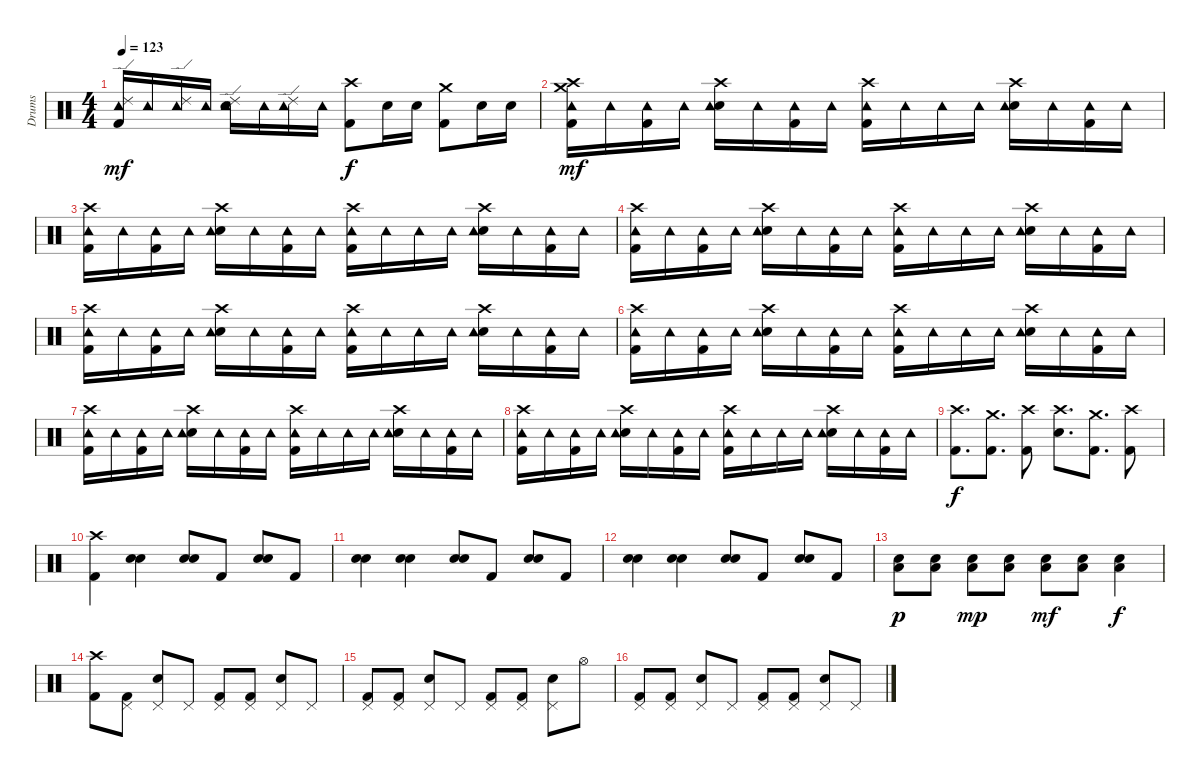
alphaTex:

\track ("Drums" "Drums") {instrument percussion}
\staff {score}
\articulation defaults
\ts (4 4)
\tempo 123
\clef neutral
\ks c
("Ride (edge) 2" "Tambourine (hit)" "Kick (hit) 2").16{dy mf} "Tambourine (hit)".16 ("Ride (edge) 2" "Tambourine (hit)").16 "Tambourine (hit)".16 ("Ride (edge) 2" "Electric Snare (hit)" "Tambourine (hit)").16 "Tambourine (hit)".16 ("Ride (edge) 2" "Tambourine (hit)").16 "Tambourine (hit)".16 ("Crash high (hit)" "Kick (hit) 2").8{dy f} "Electric Snare (hit)".16 "Electric Snare (hit)".16 ("Crash medium (hit)" "Kick (hit) 2").8 "Electric Snare (hit)".16 "Electric Snare (hit)".16 |
("Crash high (hit)" "Crash medium (hit)" "Tambourine (hit)" "Kick (hit) 2").16{dy mf} "Tambourine (hit)".16 ("Tambourine (hit)" "Kick (hit) 2").16 "Tambourine (hit)".16 ("Crash high (hit)" "Electric Snare (hit)" "Tambourine (hit)").16 "Tambourine (hit)".16 ("Tambourine (hit)" "Kick (hit) 2").16 "Tambourine (hit)".16 ("Crash high (hit)" "Tambourine (hit)" "Kick (hit) 2").16 "Tambourine (hit)".16 "Tambourine (hit)".16 "Tambourine (hit)".16 ("Crash high (hit)" "Electric Snare (hit)" "Tambourine (hit)").16 "Tambourine (hit)".16 ("Tambourine (hit)" "Kick (hit) 2").16 "Tambourine (hit)".16 |
("Crash high (hit)" "Tambourine (hit)" "Kick (hit) 2").16 "Tambourine (hit)".16 ("Tambourine (hit)" "Kick (hit) 2").16 "Tambourine (hit)".16 ("Crash high (hit)" "Electric Snare (hit)" "Tambourine (hit)").16 "Tambourine (hit)".16 ("Tambourine (hit)" "Kick (hit) 2").16 "Tambourine (hit)".16 ("Crash high (hit)" "Tambourine (hit)" "Kick (hit) 2").16 "Tambourine (hit)".16 "Tambourine (hit)".16 "Tambourine (hit)".16 ("Crash high (hit)" "Electric Snare (hit)" "Tambourine (hit)").16 "Tambourine (hit)".16 ("Tambourine (hit)" "Kick (hit) 2").16 "Tambourine (hit)".16 |
("Crash high (hit)" "Tambourine (hit)" "Kick (hit) 2").16 "Tambourine (hit)".16 ("Tambourine (hit)" "Kick (hit) 2").16 "Tambourine (hit)".16 ("Crash high (hit)" "Electric Snare (hit)" "Tambourine (hit)").16 "Tambourine (hit)".16 ("Tambourine (hit)" "Kick (hit) 2").16 "Tambourine (hit)".16 ("Crash high (hit)" "Tambourine (hit)" "Kick (hit) 2").16 "Tambourine (hit)".16 "Tambourine (hit)".16 "Tambourine (hit)".16 ("Crash high (hit)" "Electric Snare (hit)" "Tambourine (hit)").16 "Tambourine (hit)".16 ("Tambourine (hit)" "Kick (hit) 2").16 "Tambourine (hit)".16 |
("Crash high (hit)" "Tambourine (hit)" "Kick (hit) 2").16 "Tambourine (hit)".16 ("Tambourine (hit)" "Kick (hit) 2").16 "Tambourine (hit)".16 ("Crash high (hit)" "Electric Snare (hit)" "Tambourine (hit)").16 "Tambourine (hit)".16 ("Tambourine (hit)" "Kick (hit) 2").16 "Tambourine (hit)".16 ("Crash high (hit)" "Tambourine (hit)" "Kick (hit) 2").16 "Tambourine (hit)".16 "Tambourine (hit)".16 "Tambourine (hit)".16 ("Crash high (hit)" "Electric Snare (hit)" "Tambourine (hit)").16 "Tambourine (hit)".16 ("Tambourine (hit)" "Kick (hit) 2").16 "Tambourine (hit)".16 |
("Crash high (hit)" "Tambourine (hit)" "Kick (hit) 2").16 "Tambourine (hit)".16 ("Tambourine (hit)" "Kick (hit) 2").16 "Tambourine (hit)".16 ("Crash high (hit)" "Electric Snare (hit)" "Tambourine (hit)").16 "Tambourine (hit)".16 ("Tambourine (hit)" "Kick (hit) 2").16 "Tambourine (hit)".16 ("Crash high (hit)" "Tambourine (hit)" "Kick (hit) 2").16 "Tambourine (hit)".16 "Tambourine (hit)".16 "Tambourine (hit)".16 ("Crash high (hit)" "Electric Snare (hit)" "Tambourine (hit)").16 "Tambourine (hit)".16 ("Tambourine (hit)" "Kick (hit) 2").16 "Tambourine (hit)".16 |
("Crash high (hit)" "Tambourine (hit)" "Kick (hit) 2").16 "Tambourine (hit)".16 ("Tambourine (hit)" "Kick (hit) 2").16 "Tambourine (hit)".16 ("Crash high (hit)" "Electric Snare (hit)" "Tambourine (hit)").16 "Tambourine (hit)".16 ("Tambourine (hit)" "Kick (hit) 2").16 "Tambourine (hit)".16 ("Crash high (hit)" "Tambourine (hit)" "Kick (hit) 2").16 "Tambourine (hit)".16 "Tambourine (hit)".16 "Tambourine (hit)".16 ("Crash high (hit)" "Electric Snare (hit)" "Tambourine (hit)").16 "Tambourine (hit)".16 ("Tambourine (hit)" "Kick (hit) 2").16 "Tambourine (hit)".16 |
("Crash high (hit)" "Tambourine (hit)" "Kick (hit) 2").16 "Tambourine (hit)".16 ("Tambourine (hit)" "Kick (hit) 2").16 "Tambourine (hit)".16 ("Crash high (hit)" "Electric Snare (hit)" "Tambourine (hit)").16 "Tambourine (hit)".16 ("Tambourine (hit)" "Kick (hit) 2").16 "Tambourine (hit)".16 ("Crash high (hit)" "Tambourine (hit)" "Kick (hit) 2").16 "Tambourine (hit)".16 "Tambourine (hit)".16 "Tambourine (hit)".16 ("Crash high (hit)" "Electric Snare (hit)" "Tambourine (hit)").16 "Tambourine (hit)".16 ("Tambourine (hit)" "Kick (hit) 2").16 "Tambourine (hit)".16 |
("Crash high (hit)" "Kick (hit) 2").8{d dy f} ("Crash medium (hit)" "Kick (hit) 2").8{d} ("Crash high (hit)" "Kick (hit) 2").8 ("Crash high (hit)" "Electric Snare (hit)").8{d} ("Crash medium (hit)" "Kick (hit) 2").8{d} ("Crash high (hit)" "Kick (hit) 2").8 |
("Crash high (hit)" "Kick (hit) 2").4 ("Hand Clap (hit)" "Electric Snare (hit)").4 ("Hand Clap (hit)" "Electric Snare (hit)").8 "Kick (hit) 2".8 ("Hand Clap (hit)" "Electric Snare (hit)").8 "Kick (hit) 2".8 |
("Hand Clap (hit)" "Electric Snare (hit)").4 ("Hand Clap (hit)" "Electric Snare (hit)").4 ("Hand Clap (hit)" "Electric Snare (hit)").8 "Kick (hit) 2".8 ("Hand Clap (hit)" "Electric Snare (hit)").8 "Kick (hit) 2".8 |
("Hand Clap (hit)" "Electric Snare (hit)").4 ("Hand Clap (hit)" "Electric Snare (hit)").4 ("Hand Clap (hit)" "Electric Snare (hit)").8 "Kick (hit) 2".8 ("Hand Clap (hit)" "Electric Snare (hit)").8 "Kick (hit) 2".8 |
("Low Tom (hit)" "Electric Snare (hit)").8{dy p} ("Low Tom (hit)" "Electric Snare (hit)").8 ("Low Tom (hit)" "Electric Snare (hit)").8{dy mp} ("Low Tom (hit)" "Electric Snare (hit)").8 ("Low Tom (hit)" "Electric Snare (hit)").8{dy mf} ("Low Tom (hit)" "Electric Snare (hit)").8 ("Low Tom (hit)" "Electric Snare (hit)").4{dy f} |
("Crash high (hit)" "Kick (hit) 2").8 ("Pedal Hi-Hat (hit)" "Kick (hit) 2").8 ("Pedal Hi-Hat (hit)" "Electric Snare (hit)").8 "Pedal Hi-Hat (hit)".8 ("Pedal Hi-Hat (hit)" "Kick (hit) 2").8 ("Pedal Hi-Hat (hit)" "Kick (hit) 2").8 ("Pedal Hi-Hat (hit)" "Electric Snare (hit)").8 "Pedal Hi-Hat (hit)".8 |
("Pedal Hi-Hat (hit)" "Kick (hit) 2").8 ("Pedal Hi-Hat (hit)" "Kick (hit) 2").8 ("Pedal Hi-Hat (hit)" "Electric Snare (hit)").8 "Pedal Hi-Hat (hit)".8 ("Pedal Hi-Hat (hit)" "Kick (hit) 2").8 ("Pedal Hi-Hat (hit)" "Kick (hit) 2").8 ("Pedal Hi-Hat (hit)" "Electric Snare (hit)").8 "Hi-Hat (open)".8 |
("Pedal Hi-Hat (hit)" "Kick (hit) 2").8 ("Pedal Hi-Hat (hit)" "Kick (hit) 2").8 ("Pedal Hi-Hat (hit)" "Electric Snare (hit)").8 "Pedal Hi-Hat (hit)".8 ("Pedal Hi-Hat (hit)" "Kick (hit) 2").8 ("Pedal Hi-Hat (hit)" "Kick (hit) 2").8 ("Pedal Hi-Hat (hit)" "Electric Snare (hit)").8 "Pedal Hi-Hat (hit)".8
